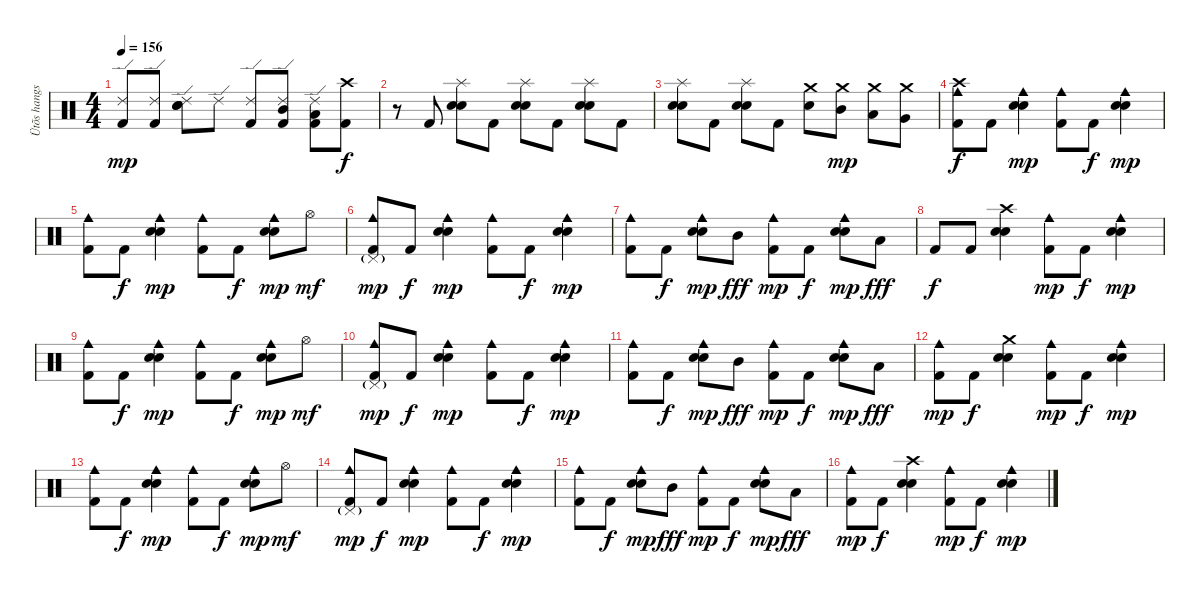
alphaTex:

\track ("Ütõs hangszer" "Ütõs hangs") {instrument percussion}
\staff {score}
\articulation defaults
\ts (4 4)
\tempo 156
\clef neutral
\ks c
("Ride (edge) 2" "Kick (hit) 2").8{dy mp} ("Ride (edge) 2" "Kick (hit) 2").8 ("Ride (edge) 2" "Snare (hit) 2" "Electric Snare (hit)").8 "Ride (edge) 2".8 ("Ride (edge) 2" "Kick (hit) 2").8 ("Ride (edge) 2" "Mid Tom (hit)" "Kick (hit) 2").8 ("Ride (edge) 2" "Low Tom (hit)" "Kick (hit) 2").8 ("Crash high (hit)" "Kick (hit) 2").8{dy f} |
r.8 "Kick (hit) 2".8 ("Splash (hit)" "Snare (hit) 2" "Electric Snare (hit)").8 "Kick (hit) 2".8 ("Splash (hit)" "Snare (hit) 2" "Electric Snare (hit)").8 "Kick (hit) 2".8 ("Splash (hit)" "Snare (hit) 2" "Electric Snare (hit)").8 "Kick (hit) 2".8 |
("Splash (hit)" "Snare (hit) 2" "Electric Snare (hit)").8 "Kick (hit) 2".8 ("Splash (hit)" "Snare (hit) 2" "Electric Snare (hit)").8 "Kick (hit) 2".8 ("Crash medium (hit)" "Electric Snare (hit)").8 ("Crash medium (hit)" "Mid Tom (hit)").8{dy mp} ("Crash medium (hit)" "Low Tom (hit)").8 ("Crash medium (hit)" "Very Low Tom (hit)").8 |
("Crash high (hit)" "Cowbell medium (hit)" "Kick (hit) 2").8{dy f} "Kick (hit) 2".8 ("Cowbell medium (hit)" "Snare (hit) 2" "Electric Snare (hit)").4{dy mp} ("Cowbell medium (hit)" "Kick (hit) 2").8 "Kick (hit) 2".8{dy f} ("Cowbell medium (hit)" "Snare (hit) 2" "Electric Snare (hit)").4{dy mp} |
("Cowbell medium (hit)" "Kick (hit) 2").8 "Kick (hit) 2".8{dy f} ("Cowbell medium (hit)" "Snare (hit) 2" "Electric Snare (hit)").4{dy mp} ("Cowbell medium (hit)" "Kick (hit) 2").8 "Kick (hit) 2".8{dy f} ("Cowbell medium (hit)" "Snare (hit) 2" "Electric Snare (hit)").8{dy mp} "Hi-Hat (open)".8{dy mf} |
("Cowbell medium (hit)" "Pedal Hi-Hat (hit)"{g} "Kick (hit) 2").8{dy mp} "Kick (hit) 2".8{dy f} ("Cowbell medium (hit)" "Snare (hit) 2" "Electric Snare (hit)").4{dy mp} ("Cowbell medium (hit)" "Kick (hit) 2").8 "Kick (hit) 2".8{dy f} ("Cowbell medium (hit)" "Snare (hit) 2" "Electric Snare (hit)").4{dy mp} |
("Cowbell medium (hit)" "Kick (hit) 2").8 "Kick (hit) 2".8{dy f} ("Cowbell medium (hit)" "Snare (hit) 2" "Electric Snare (hit)").8{dy mp} "Mid Tom (hit)".8{dy fff} ("Cowbell medium (hit)" "Kick (hit) 2").8{dy mp} "Kick (hit) 2".8{dy f} ("Cowbell medium (hit)" "Snare (hit) 2" "Electric Snare (hit)").8{dy mp} "Low Tom (hit)".8{dy fff} |
"Kick (hit) 2".8{dy f} "Kick (hit) 2".8 ("Crash high (hit)" "Snare (hit) 2" "Electric Snare (hit)").4 ("Cowbell medium (hit)" "Kick (hit) 2").8{dy mp} "Kick (hit) 2".8{dy f} ("Cowbell medium (hit)" "Snare (hit) 2" "Electric Snare (hit)").4{dy mp} |
("Cowbell medium (hit)" "Kick (hit) 2").8 "Kick (hit) 2".8{dy f} ("Cowbell medium (hit)" "Snare (hit) 2" "Electric Snare (hit)").4{dy mp} ("Cowbell medium (hit)" "Kick (hit) 2").8 "Kick (hit) 2".8{dy f} ("Cowbell medium (hit)" "Snare (hit) 2" "Electric Snare (hit)").8{dy mp} "Hi-Hat (open)".8{dy mf} |
("Cowbell medium (hit)" "Pedal Hi-Hat (hit)"{g} "Kick (hit) 2").8{dy mp} "Kick (hit) 2".8{dy f} ("Cowbell medium (hit)" "Snare (hit) 2" "Electric Snare (hit)").4{dy mp} ("Cowbell medium (hit)" "Kick (hit) 2").8 "Kick (hit) 2".8{dy f} ("Cowbell medium (hit)" "Snare (hit) 2" "Electric Snare (hit)").4{dy mp} |
("Cowbell medium (hit)" "Kick (hit) 2").8 "Kick (hit) 2".8{dy f} ("Cowbell medium (hit)" "Snare (hit) 2" "Electric Snare (hit)").8{dy mp} "Mid Tom (hit)".8{dy fff} ("Cowbell medium (hit)" "Kick (hit) 2").8{dy mp} "Kick (hit) 2".8{dy f} ("Cowbell medium (hit)" "Snare (hit) 2" "Electric Snare (hit)").8{dy mp} "Low Tom (hit)".8{dy fff} |
("Cowbell medium (hit)" "Kick (hit) 2").8{dy mp} "Kick (hit) 2".8{dy f} ("Crash medium (hit)" "Snare (hit) 2" "Electric Snare (hit)").4 ("Cowbell medium (hit)" "Kick (hit) 2").8{dy mp} "Kick (hit) 2".8{dy f} ("Cowbell medium (hit)" "Snare (hit) 2" "Electric Snare (hit)").4{dy mp} |
("Cowbell medium (hit)" "Kick (hit) 2").8 "Kick (hit) 2".8{dy f} ("Cowbell medium (hit)" "Snare (hit) 2" "Electric Snare (hit)").4{dy mp} ("Cowbell medium (hit)" "Kick (hit) 2").8 "Kick (hit) 2".8{dy f} ("Cowbell medium (hit)" "Snare (hit) 2" "Electric Snare (hit)").8{dy mp} "Hi-Hat (open)".8{dy mf} |
("Cowbell medium (hit)" "Pedal Hi-Hat (hit)"{g} "Kick (hit) 2").8{dy mp} "Kick (hit) 2".8{dy f} ("Cowbell medium (hit)" "Snare (hit) 2" "Electric Snare (hit)").4{dy mp} ("Cowbell medium (hit)" "Kick (hit) 2").8 "Kick (hit) 2".8{dy f} ("Cowbell medium (hit)" "Snare (hit) 2" "Electric Snare (hit)").4{dy mp} |
("Cowbell medium (hit)" "Kick (hit) 2").8 "Kick (hit) 2".8{dy f} ("Cowbell medium (hit)" "Snare (hit) 2" "Electric Snare (hit)").8{dy mp} "Mid Tom (hit)".8{dy fff} ("Cowbell medium (hit)" "Kick (hit) 2").8{dy mp} "Kick (hit) 2".8{dy f} ("Cowbell medium (hit)" "Snare (hit) 2" "Electric Snare (hit)").8{dy mp} "Low Tom (hit)".8{dy fff} |
("Cowbell medium (hit)" "Kick (hit) 2").8{dy mp} "Kick (hit) 2".8{dy f} ("Crash high (hit)" "Snare (hit) 2" "Electric Snare (hit)").4 ("Cowbell medium (hit)" "Kick (hit) 2").8{dy mp} "Kick (hit) 2".8{dy f} ("Cowbell medium (hit)" "Snare (hit) 2" "Electric Snare (hit)").4{dy mp}
